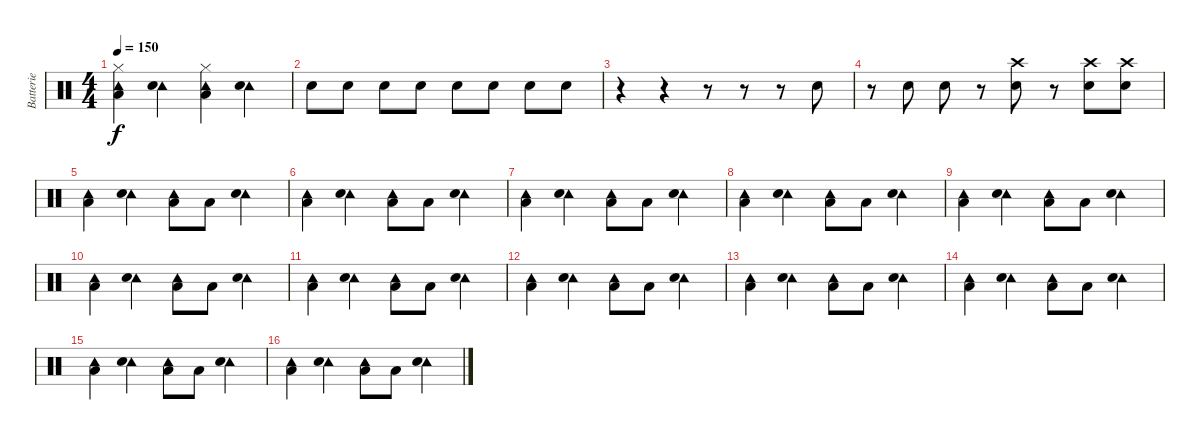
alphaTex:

\track ("Batterie" "Batterie") {instrument percussion}
\staff {score}
\articulation defaults
\ts (4 4)
\tempo 150
\clef neutral
\ks c
("Tambourine (hit)" "Hi-Hat (closed)" "Low Floor Tom (hit)").4{dy f} ("Tambourine (hit)" "Electric Snare (hit)").4 ("Tambourine (hit)" "Hi-Hat (closed)" "Low Floor Tom (hit)").4 ("Tambourine (hit)" "Electric Snare (hit)").4 |
"Snare (hit) 2".8 "Snare (hit) 2".8 "Snare (hit) 2".8 "Snare (hit) 2".8 "Snare (hit) 2".8 "Snare (hit) 2".8 "Snare (hit) 2".8 "Snare (hit) 2".8 |
r.4 r.4 r.8 r.8 r.8 "Snare (hit) 2".8 |
r.8 "Snare (hit) 2".8 "Snare (hit) 2".8 r.8 ("Crash high (hit)" "Snare (hit) 2").8 r.8 ("Crash high (hit)" "Snare (hit) 2").8 ("Crash high (hit)" "Snare (hit) 2").8 |
("Tambourine (hit)" "Low Floor Tom (hit)").4 ("Tambourine (hit)" "Electric Snare (hit)").4 ("Tambourine (hit)" "Low Floor Tom (hit)").8 "Low Floor Tom (hit)".8 ("Tambourine (hit)" "Electric Snare (hit)").4 |
("Tambourine (hit)" "Low Floor Tom (hit)").4 ("Tambourine (hit)" "Electric Snare (hit)").4 ("Tambourine (hit)" "Low Floor Tom (hit)").8 "Low Floor Tom (hit)".8 ("Tambourine (hit)" "Electric Snare (hit)").4 |
("Tambourine (hit)" "Low Floor Tom (hit)").4 ("Tambourine (hit)" "Electric Snare (hit)").4 ("Tambourine (hit)" "Low Floor Tom (hit)").8 "Low Floor Tom (hit)".8 ("Tambourine (hit)" "Electric Snare (hit)").4 |
("Tambourine (hit)" "Low Floor Tom (hit)").4 ("Tambourine (hit)" "Electric Snare (hit)").4 ("Tambourine (hit)" "Low Floor Tom (hit)").8 "Low Floor Tom (hit)".8 ("Tambourine (hit)" "Electric Snare (hit)").4 |
("Tambourine (hit)" "Low Floor Tom (hit)").4 ("Tambourine (hit)" "Electric Snare (hit)").4 ("Tambourine (hit)" "Low Floor Tom (hit)").8 "Low Floor Tom (hit)".8 ("Tambourine (hit)" "Electric Snare (hit)").4 |
("Tambourine (hit)" "Low Floor Tom (hit)").4 ("Tambourine (hit)" "Electric Snare (hit)").4 ("Tambourine (hit)" "Low Floor Tom (hit)").8 "Low Floor Tom (hit)".8 ("Tambourine (hit)" "Electric Snare (hit)").4 |
("Tambourine (hit)" "Low Floor Tom (hit)").4 ("Tambourine (hit)" "Electric Snare (hit)").4 ("Tambourine (hit)" "Low Floor Tom (hit)").8 "Low Floor Tom (hit)".8 ("Tambourine (hit)" "Electric Snare (hit)").4 |
("Tambourine (hit)" "Low Floor Tom (hit)").4 ("Tambourine (hit)" "Electric Snare (hit)").4 ("Tambourine (hit)" "Low Floor Tom (hit)").8 "Low Floor Tom (hit)".8 ("Tambourine (hit)" "Electric Snare (hit)").4 |
("Tambourine (hit)" "Low Floor Tom (hit)").4 ("Tambourine (hit)" "Electric Snare (hit)").4 ("Tambourine (hit)" "Low Floor Tom (hit)").8 "Low Floor Tom (hit)".8 ("Tambourine (hit)" "Electric Snare (hit)").4 |
("Tambourine (hit)" "Low Floor Tom (hit)").4 ("Tambourine (hit)" "Electric Snare (hit)").4 ("Tambourine (hit)" "Low Floor Tom (hit)").8 "Low Floor Tom (hit)".8 ("Tambourine (hit)" "Electric Snare (hit)").4 |
("Tambourine (hit)" "Low Floor Tom (hit)").4 ("Tambourine (hit)" "Electric Snare (hit)").4 ("Tambourine (hit)" "Low Floor Tom (hit)").8 "Low Floor Tom (hit)".8 ("Tambourine (hit)" "Electric Snare (hit)").4 |
("Tambourine (hit)" "Low Floor Tom (hit)").4 ("Tambourine (hit)" "Electric Snare (hit)").4 ("Tambourine (hit)" "Low Floor Tom (hit)").8 "Low Floor Tom (hit)".8 ("Tambourine (hit)" "Electric Snare (hit)").4
